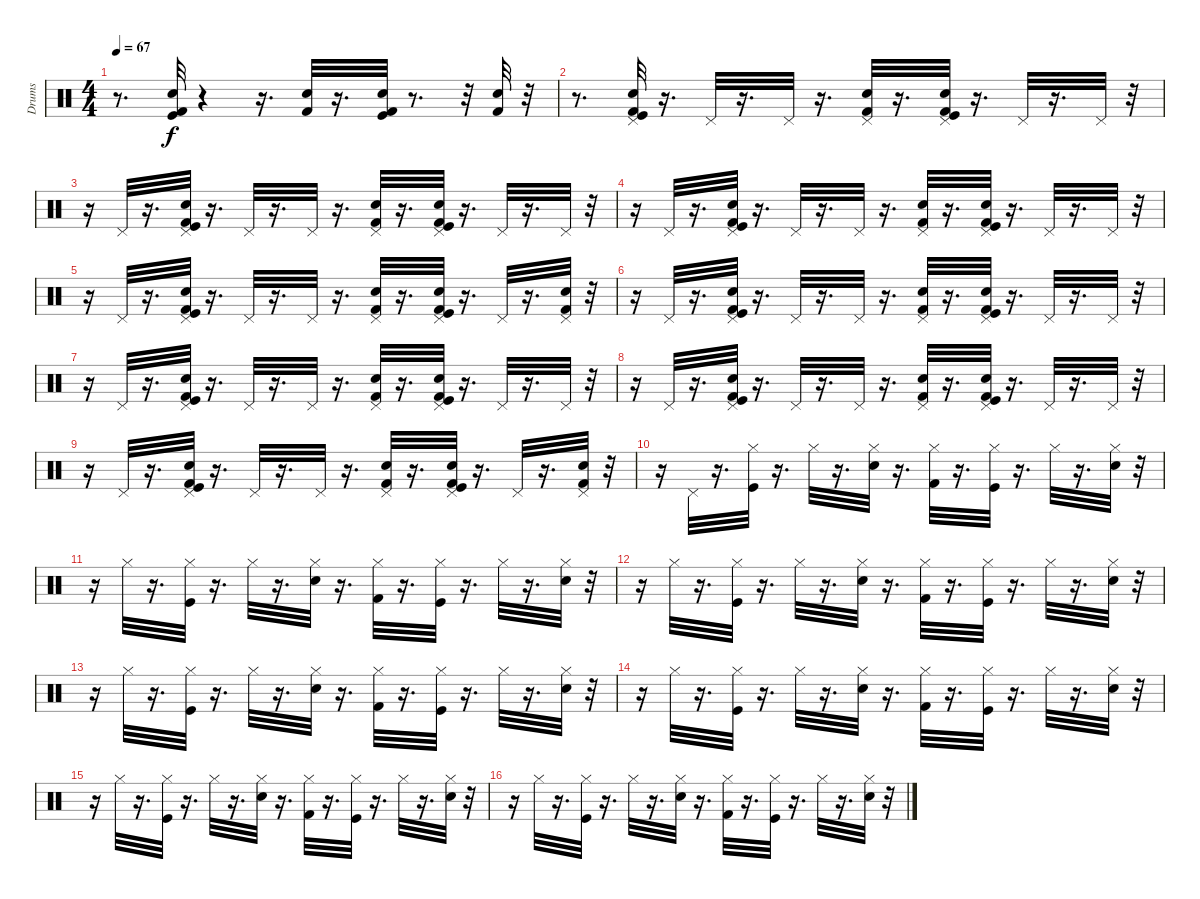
\track ("Drums" "Drums") {instrument percussion}
\staff {score}
\articulation defaults
\ts (4 4)
\tempo 67
\clef neutral
\ks c
r.8{d dy f} ("Snare (hit) 2" "Kick (hit)" "Kick (hit) 2").32 r.4 r.16{d} ("Snare (hit) 2" "Kick (hit) 2").32 r.16{d} ("Snare (hit) 2" "Kick (hit)" "Kick (hit) 2").32 r.8{d} r.32 ("Snare (hit) 2" "Kick (hit) 2").32 r.32 |
r.8{d} ("Pedal Hi-Hat (hit)" "Snare (hit) 2" "Kick (hit)" "Kick (hit) 2").32 r.16{d} "Pedal Hi-Hat (hit)".32 r.16{d} "Pedal Hi-Hat (hit)".32 r.16{d} ("Pedal Hi-Hat (hit)" "Snare (hit) 2" "Kick (hit) 2").32 r.16{d} ("Pedal Hi-Hat (hit)" "Snare (hit) 2" "Kick (hit)" "Kick (hit) 2").32 r.16{d} "Pedal Hi-Hat (hit)".32 r.16{d} "Pedal Hi-Hat (hit)".32 r.32 |
r.16 "Pedal Hi-Hat (hit)".32 r.16{d} ("Pedal Hi-Hat (hit)" "Snare (hit) 2" "Kick (hit)" "Kick (hit) 2").32 r.16{d} "Pedal Hi-Hat (hit)".32 r.16{d} "Pedal Hi-Hat (hit)".32 r.16{d} ("Pedal Hi-Hat (hit)" "Snare (hit) 2" "Kick (hit) 2").32 r.16{d} ("Pedal Hi-Hat (hit)" "Snare (hit) 2" "Kick (hit)" "Kick (hit) 2").32 r.16{d} "Pedal Hi-Hat (hit)".32 r.16{d} "Pedal Hi-Hat (hit)".32 r.32 |
r.16 "Pedal Hi-Hat (hit)".32 r.16{d} ("Pedal Hi-Hat (hit)" "Snare (hit) 2" "Kick (hit)" "Kick (hit) 2").32 r.16{d} "Pedal Hi-Hat (hit)".32 r.16{d} "Pedal Hi-Hat (hit)".32 r.16{d} ("Pedal Hi-Hat (hit)" "Snare (hit) 2" "Kick (hit) 2").32 r.16{d} ("Pedal Hi-Hat (hit)" "Snare (hit) 2" "Kick (hit)" "Kick (hit) 2").32 r.16{d} "Pedal Hi-Hat (hit)".32 r.16{d} "Pedal Hi-Hat (hit)".32 r.32 |
r.16 "Pedal Hi-Hat (hit)".32 r.16{d} ("Pedal Hi-Hat (hit)" "Snare (hit) 2" "Kick (hit)" "Kick (hit) 2").32 r.16{d} "Pedal Hi-Hat (hit)".32 r.16{d} "Pedal Hi-Hat (hit)".32 r.16{d} ("Pedal Hi-Hat (hit)" "Snare (hit) 2" "Kick (hit) 2").32 r.16{d} ("Pedal Hi-Hat (hit)" "Snare (hit) 2" "Kick (hit)" "Kick (hit) 2").32 r.16{d} "Pedal Hi-Hat (hit)".32 r.16{d} ("Pedal Hi-Hat (hit)" "Snare (hit) 2" "Kick (hit) 2").32 r.32 |
r.16 "Pedal Hi-Hat (hit)".32 r.16{d} ("Pedal Hi-Hat (hit)" "Snare (hit) 2" "Kick (hit)" "Kick (hit) 2").32 r.16{d} "Pedal Hi-Hat (hit)".32 r.16{d} "Pedal Hi-Hat (hit)".32 r.16{d} ("Pedal Hi-Hat (hit)" "Snare (hit) 2" "Kick (hit) 2").32 r.16{d} ("Pedal Hi-Hat (hit)" "Snare (hit) 2" "Kick (hit)" "Kick (hit) 2").32 r.16{d} "Pedal Hi-Hat (hit)".32 r.16{d} "Pedal Hi-Hat (hit)".32 r.32 |
r.16 "Pedal Hi-Hat (hit)".32 r.16{d} ("Pedal Hi-Hat (hit)" "Snare (hit) 2" "Kick (hit)" "Kick (hit) 2").32 r.16{d} "Pedal Hi-Hat (hit)".32 r.16{d} "Pedal Hi-Hat (hit)".32 r.16{d} ("Pedal Hi-Hat (hit)" "Snare (hit) 2" "Kick (hit) 2").32 r.16{d} ("Pedal Hi-Hat (hit)" "Snare (hit) 2" "Kick (hit)" "Kick (hit) 2").32 r.16{d} "Pedal Hi-Hat (hit)".32 r.16{d} "Pedal Hi-Hat (hit)".32 r.32 |
r.16 "Pedal Hi-Hat (hit)".32 r.16{d} ("Pedal Hi-Hat (hit)" "Snare (hit) 2" "Kick (hit)" "Kick (hit) 2").32 r.16{d} "Pedal Hi-Hat (hit)".32 r.16{d} "Pedal Hi-Hat (hit)".32 r.16{d} ("Pedal Hi-Hat (hit)" "Snare (hit) 2" "Kick (hit) 2").32 r.16{d} ("Pedal Hi-Hat (hit)" "Snare (hit) 2" "Kick (hit)" "Kick (hit) 2").32 r.16{d} "Pedal Hi-Hat (hit)".32 r.16{d} "Pedal Hi-Hat (hit)".32 r.32 |
r.16 "Pedal Hi-Hat (hit)".32 r.16{d} ("Pedal Hi-Hat (hit)" "Snare (hit) 2" "Kick (hit)" "Kick (hit) 2").32 r.16{d} "Pedal Hi-Hat (hit)".32 r.16{d} "Pedal Hi-Hat (hit)".32 r.16{d} ("Pedal Hi-Hat (hit)" "Snare (hit) 2" "Kick (hit) 2").32 r.16{d} ("Pedal Hi-Hat (hit)" "Snare (hit) 2" "Kick (hit)" "Kick (hit) 2").32 r.16{d} "Pedal Hi-Hat (hit)".32 r.16{d} ("Pedal Hi-Hat (hit)" "Snare (hit) 2" "Kick (hit) 2").32 r.32 |
r.16 "Pedal Hi-Hat (hit)".32 r.16{d} ("Kick (hit)" "Hi-Hat (closed)").32 r.16{d} "Hi-Hat (closed)".32 r.16{d} ("Snare (hit) 2" "Hi-Hat (closed)").32 r.16{d} ("Kick (hit) 2" "Hi-Hat (closed)").32 r.16{d} ("Kick (hit)" "Hi-Hat (closed)").32 r.16{d} "Hi-Hat (closed)".32 r.16{d} ("Snare (hit) 2" "Hi-Hat (closed)").32 r.32 |
r.16 "Hi-Hat (closed)".32 r.16{d} ("Kick (hit)" "Hi-Hat (closed)").32 r.16{d} "Hi-Hat (closed)".32 r.16{d} ("Snare (hit) 2" "Hi-Hat (closed)").32 r.16{d} ("Kick (hit) 2" "Hi-Hat (closed)").32 r.16{d} ("Kick (hit)" "Hi-Hat (closed)").32 r.16{d} "Hi-Hat (closed)".32 r.16{d} ("Snare (hit) 2" "Hi-Hat (closed)").32 r.32 |
r.16 "Hi-Hat (closed)".32 r.16{d} ("Hi-Hat (closed)" "Kick (hit)").32 r.16{d} "Hi-Hat (closed)".32 r.16{d} ("Hi-Hat (closed)" "Snare (hit) 2").32 r.16{d} ("Hi-Hat (closed)" "Kick (hit) 2").32 r.16{d} ("Hi-Hat (closed)" "Kick (hit)").32 r.16{d} "Hi-Hat (closed)".32 r.16{d} ("Hi-Hat (closed)" "Snare (hit) 2").32 r.32 |
r.16 "Hi-Hat (closed)".32 r.16{d} ("Hi-Hat (closed)" "Kick (hit)").32 r.16{d} "Hi-Hat (closed)".32 r.16{d} ("Hi-Hat (closed)" "Snare (hit) 2").32 r.16{d} ("Hi-Hat (closed)" "Kick (hit) 2").32 r.16{d} ("Hi-Hat (closed)" "Kick (hit)").32 r.16{d} "Hi-Hat (closed)".32 r.16{d} ("Hi-Hat (closed)" "Snare (hit) 2").32 r.32 |
r.16 "Hi-Hat (closed)".32 r.16{d} ("Kick (hit)" "Hi-Hat (closed)").32 r.16{d} "Hi-Hat (closed)".32 r.16{d} ("Snare (hit) 2" "Hi-Hat (closed)").32 r.16{d} ("Kick (hit) 2" "Hi-Hat (closed)").32 r.16{d} ("Kick (hit)" "Hi-Hat (closed)").32 r.16{d} "Hi-Hat (closed)".32 r.16{d} ("Snare (hit) 2" "Hi-Hat (closed)").32 r.32 |
r.16 "Hi-Hat (closed)".32 r.16{d} ("Kick (hit)" "Hi-Hat (closed)").32 r.16{d} "Hi-Hat (closed)".32 r.16{d} ("Snare (hit) 2" "Hi-Hat (closed)").32 r.16{d} ("Kick (hit) 2" "Hi-Hat (closed)").32 r.16{d} ("Kick (hit)" "Hi-Hat (closed)").32 r.16{d} "Hi-Hat (closed)".32 r.16{d} ("Snare (hit) 2" "Hi-Hat (closed)").32 r.32 |
r.16 "Hi-Hat (closed)".32 r.16{d} ("Hi-Hat (closed)" "Kick (hit)").32 r.16{d} "Hi-Hat (closed)".32 r.16{d} ("Hi-Hat (closed)" "Snare (hit) 2").32 r.16{d} ("Hi-Hat (closed)" "Kick (hit) 2").32 r.16{d} ("Hi-Hat (closed)" "Kick (hit)").32 r.16{d} "Hi-Hat (closed)".32 r.16{d} ("Hi-Hat (closed)" "Snare (hit) 2").32 r.32
